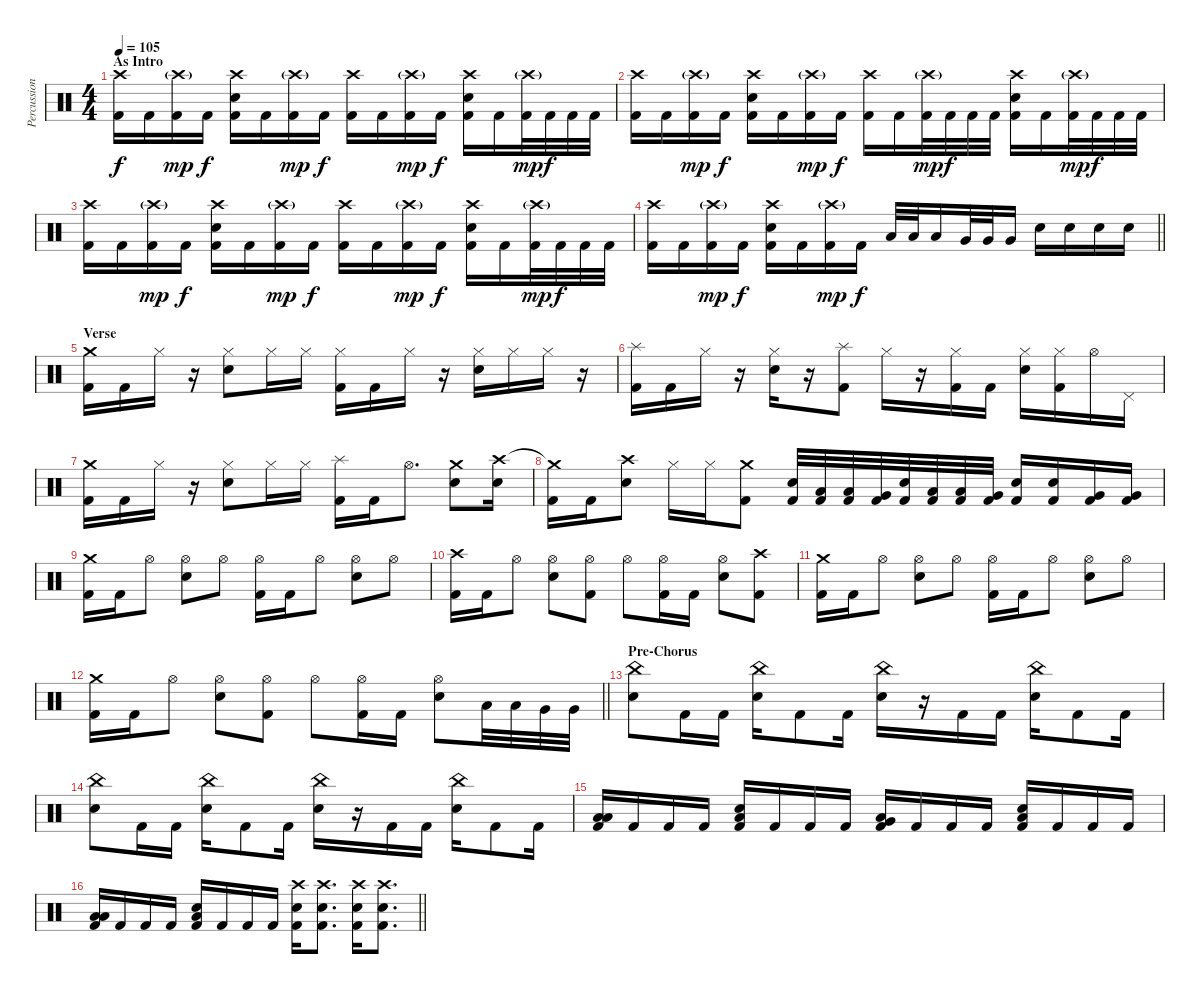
\track ("Percussions" "Percussion") {instrument percussion}
\staff {score}
\articulation defaults
\ts (4 4)
\section ("" "As Intro")
\tempo 105
\clef neutral
\ks c
("Crash high (hit)" "Kick (hit) 2").16{dy f} "Kick (hit) 2".16 ("Crash high (hit)"{g} "Kick (hit) 2").16{dy mp} "Kick (hit) 2".16{dy f} ("Crash high (hit)" "Electric Snare (hit)" "Kick (hit) 2").16 "Kick (hit) 2".16 ("Crash high (hit)"{g} "Kick (hit) 2").16{dy mp} "Kick (hit) 2".16{dy f} ("Crash high (hit)" "Kick (hit) 2").16 "Kick (hit) 2".16 ("Crash high (hit)"{g} "Kick (hit) 2").16{dy mp} "Kick (hit) 2".16{dy f} ("Crash high (hit)" "Electric Snare (hit)" "Kick (hit) 2").16 "Kick (hit) 2".16 ("Crash high (hit)"{g} "Kick (hit) 2").32{dy mp} "Kick (hit) 2".32{dy f} "Kick (hit) 2".32 "Kick (hit) 2".32 |
("Crash high (hit)" "Kick (hit) 2").16 "Kick (hit) 2".16 ("Crash high (hit)"{g} "Kick (hit) 2").16{dy mp} "Kick (hit) 2".16{dy f} ("Crash high (hit)" "Electric Snare (hit)" "Kick (hit) 2").16 "Kick (hit) 2".16 ("Crash high (hit)"{g} "Kick (hit) 2").16{dy mp} "Kick (hit) 2".16{dy f} ("Crash high (hit)" "Kick (hit) 2").16 "Kick (hit) 2".16 ("Crash high (hit)"{g} "Kick (hit) 2").32{dy mp} "Kick (hit) 2".32{dy f} "Kick (hit) 2".32 "Kick (hit) 2".32 ("Crash high (hit)" "Electric Snare (hit)" "Kick (hit) 2").16 "Kick (hit) 2".16 ("Crash high (hit)"{g} "Kick (hit) 2").32{dy mp} "Kick (hit) 2".32{dy f} "Kick (hit) 2".32 "Kick (hit) 2".32 |
("Crash high (hit)" "Kick (hit) 2").16 "Kick (hit) 2".16 ("Crash high (hit)"{g} "Kick (hit) 2").16{dy mp} "Kick (hit) 2".16{dy f} ("Crash high (hit)" "Electric Snare (hit)" "Kick (hit) 2").16 "Kick (hit) 2".16 ("Crash high (hit)"{g} "Kick (hit) 2").16{dy mp} "Kick (hit) 2".16{dy f} ("Crash high (hit)" "Kick (hit) 2").16 "Kick (hit) 2".16 ("Crash high (hit)"{g} "Kick (hit) 2").16{dy mp} "Kick (hit) 2".16{dy f} ("Crash high (hit)" "Electric Snare (hit)" "Kick (hit) 2").16 "Kick (hit) 2".16 ("Crash high (hit)"{g} "Kick (hit) 2").32{dy mp} "Kick (hit) 2".32{dy f} "Kick (hit) 2".32 "Kick (hit) 2".32 |
\barLineRight lightlight
("Crash high (hit)" "Kick (hit) 2").16 "Kick (hit) 2".16 ("Crash high (hit)"{g} "Kick (hit) 2").16{dy mp} "Kick (hit) 2".16{dy f} ("Crash high (hit)" "Electric Snare (hit)" "Kick (hit) 2").16 "Kick (hit) 2".16 ("Crash high (hit)"{g} "Kick (hit) 2").16{dy mp} "Kick (hit) 2".16{dy f} "Low Tom (hit)".32 "Low Tom (hit)".32 "Low Tom (hit)".16 "Very Low Tom (hit)".32 "Very Low Tom (hit)".32 "Very Low Tom (hit)".16 "Electric Snare (hit)".16 "Electric Snare (hit)".16 "Electric Snare (hit)".16 "Electric Snare (hit)".16 |
\section ("" "Verse")
("Crash medium (hit)" "Kick (hit) 2").16 "Kick (hit) 2".16 "Hi-Hat (closed)".16 r.16 ("Hi-Hat (closed)" "Electric Snare (hit)").8 "Hi-Hat (closed)".16 "Hi-Hat (closed)".16 ("Hi-Hat (closed)" "Kick (hit) 2").16 "Kick (hit) 2".16 "Hi-Hat (closed)".16 r.16 ("Hi-Hat (closed)" "Electric Snare (hit)").16 "Hi-Hat (closed)".16 "Hi-Hat (closed)".16 r.16 |
("Splash (hit)" "Kick (hit) 2").16 "Kick (hit) 2".16 "Hi-Hat (closed)".16 r.16 ("Hi-Hat (closed)" "Electric Snare (hit)").16 r.16 ("Splash (hit)" "Kick (hit) 2").8 "Hi-Hat (closed)".16 r.16 ("Hi-Hat (closed)" "Kick (hit) 2").16 "Kick (hit) 2".16 ("Hi-Hat (closed)" "Electric Snare (hit)").16 ("Hi-Hat (closed)" "Kick (hit) 2").16 "Hi-Hat (open)".16 "Pedal Hi-Hat (hit)".16 |
("Crash medium (hit)" "Kick (hit) 2").16 "Kick (hit) 2".16 "Hi-Hat (closed)".16 r.16 ("Hi-Hat (closed)" "Electric Snare (hit)").8 "Hi-Hat (closed)".16 "Hi-Hat (closed)".16 ("Splash (hit)" "Kick (hit) 2").16 "Kick (hit) 2".16 "Hi-Hat (open)".8{d} ("Crash medium (hit)" "Electric Snare (hit)").8 ("Crash high (hit)" "Electric Snare (hit)").16 |
("Crash medium (hit)"{t} "Kick (hit) 2").16 "Kick (hit) 2".16 ("Crash high (hit)" "Electric Snare (hit)").8 "Hi-Hat (closed)".16 "Hi-Hat (closed)".16 ("Crash medium (hit)" "Kick (hit) 2").8 ("Electric Snare (hit)" "Kick (hit) 2").32 ("Low Tom (hit)" "Kick (hit) 2").32 ("Low Tom (hit)" "Kick (hit) 2").32 ("Very Low Tom (hit)" "Kick (hit) 2").32 ("Electric Snare (hit)" "Kick (hit) 2").32 ("Low Tom (hit)" "Kick (hit) 2").32 ("Low Tom (hit)" "Kick (hit) 2").32 ("Very Low Tom (hit)" "Kick (hit) 2").32 ("Electric Snare (hit)" "Kick (hit) 2").16 ("Electric Snare (hit)" "Kick (hit) 2").16 ("Very Low Tom (hit)" "Kick (hit) 2").16 ("Very Low Tom (hit)" "Kick (hit) 2").16 |
("Crash medium (hit)" "Kick (hit) 2").16 "Kick (hit) 2".16 "Hi-Hat (open)".8 ("Hi-Hat (open)" "Electric Snare (hit)").8 "Hi-Hat (open)".8 ("Hi-Hat (open)" "Kick (hit) 2").16 "Kick (hit) 2".16 "Hi-Hat (open)".8 ("Hi-Hat (open)" "Electric Snare (hit)").8 "Hi-Hat (open)".8 |
("Crash high (hit)" "Kick (hit) 2").16 "Kick (hit) 2".16 "Hi-Hat (open)".8 ("Hi-Hat (open)" "Electric Snare (hit)").8 ("Hi-Hat (open)" "Kick (hit) 2").8 "Hi-Hat (open)".8 ("Hi-Hat (open)" "Kick (hit) 2").16 "Kick (hit) 2".16 ("Hi-Hat (open)" "Electric Snare (hit)").8 ("Crash high (hit)" "Kick (hit) 2").8 |
("Crash medium (hit)" "Kick (hit) 2").16 "Kick (hit) 2".16 "Hi-Hat (open)".8 ("Hi-Hat (open)" "Electric Snare (hit)").8 "Hi-Hat (open)".8 ("Hi-Hat (open)" "Kick (hit) 2").16 "Kick (hit) 2".16 "Hi-Hat (open)".8 ("Hi-Hat (open)" "Electric Snare (hit)").8 "Hi-Hat (open)".8 |
\barLineRight lightlight
("Crash medium (hit)" "Kick (hit) 2").16 "Kick (hit) 2".16 "Hi-Hat (open)".8 ("Hi-Hat (open)" "Electric Snare (hit)").8 ("Hi-Hat (open)" "Kick (hit) 2").8 "Hi-Hat (open)".8 ("Hi-Hat (open)" "Kick (hit) 2").16 "Kick (hit) 2".16 ("Hi-Hat (open)" "Electric Snare (hit)").8 "Low Tom (hit)".32 "Low Tom (hit)".32 "Very Low Tom (hit)".32 "Very Low Tom (hit)".32 |
\section ("" "Pre-Chorus")
("China (hit)" "Electric Snare (hit)").8 "Kick (hit) 2".16 "Kick (hit) 2".16 ("China (hit)" "Electric Snare (hit)").16 "Kick (hit) 2".8 "Kick (hit) 2".16 ("China (hit)" "Electric Snare (hit)").16 r.16 "Kick (hit) 2".16 "Kick (hit) 2".16 ("China (hit)" "Electric Snare (hit)").16 "Kick (hit) 2".8 "Kick (hit) 2".16 |
("China (hit)" "Electric Snare (hit)").8 "Kick (hit) 2".16 "Kick (hit) 2".16 ("China (hit)" "Electric Snare (hit)").16 "Kick (hit) 2".8 "Kick (hit) 2".16 ("China (hit)" "Electric Snare (hit)").16 r.16 "Kick (hit) 2".16 "Kick (hit) 2".16 ("China (hit)" "Electric Snare (hit)").16 "Kick (hit) 2".8 "Kick (hit) 2".16 |
("Low Tom (hit)" "Low Floor Tom (hit)" "Kick (hit) 2").16 "Kick (hit) 2".16 "Kick (hit) 2".16 "Kick (hit) 2".16 ("Electric Snare (hit)" "Low Floor Tom (hit)" "Kick (hit) 2").16 "Kick (hit) 2".16 "Kick (hit) 2".16 "Kick (hit) 2".16 ("Very Low Tom (hit)" "Low Floor Tom (hit)" "Kick (hit) 2").16 "Kick (hit) 2".16 "Kick (hit) 2".16 "Kick (hit) 2".16 ("Electric Snare (hit)" "Low Floor Tom (hit)" "Kick (hit) 2").16 "Kick (hit) 2".16 "Kick (hit) 2".16 "Kick (hit) 2".16 |
\barLineRight lightlight
("Low Tom (hit)" "Low Floor Tom (hit)" "Kick (hit) 2").16 "Kick (hit) 2".16 "Kick (hit) 2".16 "Kick (hit) 2".16 ("Electric Snare (hit)" "Low Floor Tom (hit)" "Kick (hit) 2").16 "Kick (hit) 2".16 "Kick (hit) 2".16 "Kick (hit) 2".16 ("Crash high (hit)" "Electric Snare (hit)" "Kick (hit) 2").16 ("Crash high (hit)" "Electric Snare (hit)" "Kick (hit) 2").8{d} ("Crash high (hit)" "Electric Snare (hit)" "Kick (hit) 2").16 ("Crash high (hit)" "Electric Snare (hit)" "Kick (hit) 2").8{d}
